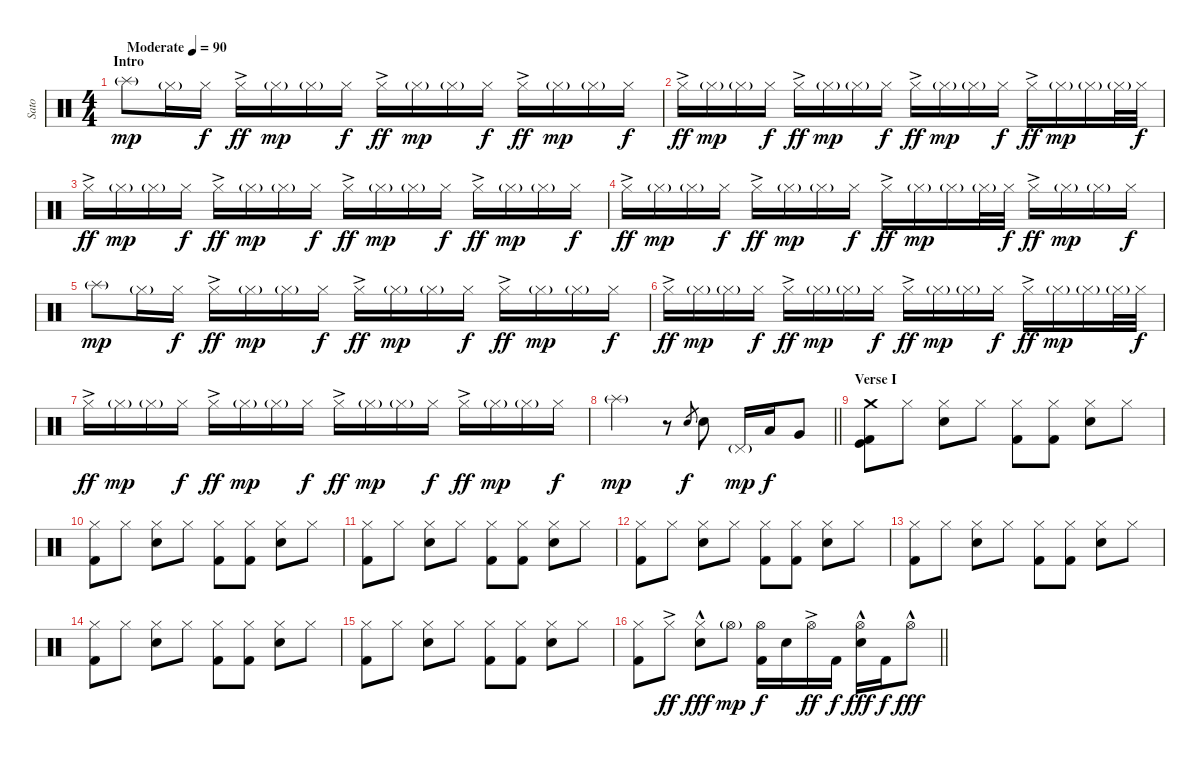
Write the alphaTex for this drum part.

\track ("Sato" "Sato") {instrument percussion}
\staff {score}
\articulation defaults
\ts (4 4)
\section ("" "Intro")
\tempo (90 "Moderate")
\clef neutral
\ks c "Splash (hit)"{g}.8{dy mp} "Hi-Hat (closed)"{g}.16 "Hi-Hat (closed)".16{dy f} "Hi-Hat (closed)"{ac}.16{dy ff} "Hi-Hat (closed)"{g}.16{dy mp} "Hi-Hat (closed)"{g}.16 "Hi-Hat (closed)".16{dy f} "Hi-Hat (closed)"{ac}.16{dy ff} "Hi-Hat (closed)"{g}.16{dy mp} "Hi-Hat (closed)"{g}.16 "Hi-Hat (closed)".16{dy f} "Hi-Hat (closed)"{ac}.16{dy ff} "Hi-Hat (closed)"{g}.16{dy mp} "Hi-Hat (closed)"{g}.16 "Hi-Hat (closed)".16{dy f}
|
"Hi-Hat (closed)"{ac}.16{dy ff} "Hi-Hat (closed)"{g}.16{dy mp} "Hi-Hat (closed)"{g}.16 "Hi-Hat (closed)".16{dy f} "Hi-Hat (closed)"{ac}.16{dy ff} "Hi-Hat (closed)"{g}.16{dy mp} "Hi-Hat (closed)"{g}.16 "Hi-Hat (closed)".16{dy f} "Hi-Hat (closed)"{ac}.16{dy ff} "Hi-Hat (closed)"{g}.16{dy mp} "Hi-Hat (closed)"{g}.16 "Hi-Hat (closed)".16{dy f} "Hi-Hat (closed)"{ac}.16{dy ff} "Hi-Hat (closed)"{g}.16{dy mp} "Hi-Hat (closed)"{g}.16 "Hi-Hat (closed)"{g}.32 "Hi-Hat (closed)".32{dy f} |
"Hi-Hat (closed)"{ac}.16{dy ff} "Hi-Hat (closed)"{g}.16{dy mp} "Hi-Hat (closed)"{g}.16 "Hi-Hat (closed)".16{dy f} "Hi-Hat (closed)"{ac}.16{dy ff} "Hi-Hat (closed)"{g}.16{dy mp} "Hi-Hat (closed)"{g}.16 "Hi-Hat (closed)".16{dy f} "Hi-Hat (closed)"{ac}.16{dy ff} "Hi-Hat (closed)"{g}.16{dy mp} "Hi-Hat (closed)"{g}.16 "Hi-Hat (closed)".16{dy f} "Hi-Hat (closed)"{ac}.16{dy ff} "Hi-Hat (closed)"{g}.16{dy mp} "Hi-Hat (closed)"{g}.16 "Hi-Hat (closed)".16{dy f} |
"Hi-Hat (closed)"{ac}.16{dy ff} "Hi-Hat (closed)"{g}.16{dy mp} "Hi-Hat (closed)"{g}.16 "Hi-Hat (closed)".16{dy f} "Hi-Hat (closed)"{ac}.16{dy ff} "Hi-Hat (closed)"{g}.16{dy mp} "Hi-Hat (closed)"{g}.16 "Hi-Hat (closed)".16{dy f} "Hi-Hat (closed)"{ac}.16{dy ff} "Hi-Hat (closed)"{g}.16{dy mp} "Hi-Hat (closed)"{g}.16 "Hi-Hat (closed)"{g}.32 "Hi-Hat (closed)".32{dy f} "Hi-Hat (closed)"{ac}.16{dy ff} "Hi-Hat (closed)"{g}.16{dy mp} "Hi-Hat (closed)"{g}.16 "Hi-Hat (closed)".16{dy f} |
"Splash (hit)"{g}.8{dy mp} "Hi-Hat (closed)"{g}.16 "Hi-Hat (closed)".16{dy f} "Hi-Hat (closed)"{ac}.16{dy ff} "Hi-Hat (closed)"{g}.16{dy mp} "Hi-Hat (closed)"{g}.16 "Hi-Hat (closed)".16{dy f} "Hi-Hat (closed)"{ac}.16{dy ff} "Hi-Hat (closed)"{g}.16{dy mp} "Hi-Hat (closed)"{g}.16 "Hi-Hat (closed)".16{dy f} "Hi-Hat (closed)"{ac}.16{dy ff} "Hi-Hat (closed)"{g}.16{dy mp} "Hi-Hat (closed)"{g}.16 "Hi-Hat (closed)".16{dy f} |
"Hi-Hat (closed)"{ac}.16{dy ff} "Hi-Hat (closed)"{g}.16{dy mp} "Hi-Hat (closed)"{g}.16 "Hi-Hat (closed)".16{dy f} "Hi-Hat (closed)"{ac}.16{dy ff} "Hi-Hat (closed)"{g}.16{dy mp} "Hi-Hat (closed)"{g}.16 "Hi-Hat (closed)".16{dy f} "Hi-Hat (closed)"{ac}.16{dy ff} "Hi-Hat (closed)"{g}.16{dy mp} "Hi-Hat (closed)"{g}.16 "Hi-Hat (closed)".16{dy f} "Hi-Hat (closed)"{ac}.16{dy ff} "Hi-Hat (closed)"{g}.16{dy mp} "Hi-Hat (closed)"{g}.16 "Hi-Hat (closed)"{g}.32 "Hi-Hat (closed)".32{dy f} |
"Hi-Hat (closed)"{ac}.16{dy ff} "Hi-Hat (closed)"{g}.16{dy mp} "Hi-Hat (closed)"{g}.16 "Hi-Hat (closed)".16{dy f} "Hi-Hat (closed)"{ac}.16{dy ff} "Hi-Hat (closed)"{g}.16{dy mp} "Hi-Hat (closed)"{g}.16 "Hi-Hat (closed)".16{dy f} "Hi-Hat (closed)"{ac}.16{dy ff} "Hi-Hat (closed)"{g}.16{dy mp} "Hi-Hat (closed)"{g}.16 "Hi-Hat (closed)".16{dy f} "Hi-Hat (closed)"{ac}.16{dy ff} "Hi-Hat (closed)"{g}.16{dy mp} "Hi-Hat (closed)"{g}.16 "Hi-Hat (closed)".16{dy f} |
\barLineRight lightlight "Splash (hit)"{g}.2{dy mp}
r.8 "Electric Snare (hit)".8{gr dy f} "Electric Snare (hit)".8 "Pedal Hi-Hat (hit)"{g}.16{dy mp} "Low Tom (hit)".16{dy f} "Very Low Tom (hit)".8 |
\section ("" "Verse I")
("Crash medium (hit)" "Kick (hit) 2" "Kick (hit)").8 "Hi-Hat (closed)".8 ("Hi-Hat (closed)" "Electric Snare (hit)").8 "Hi-Hat (closed)".8 ("Hi-Hat (closed)" "Kick (hit) 2").8 ("Hi-Hat (closed)" "Kick (hit) 2").8 ("Hi-Hat (closed)" "Electric Snare (hit)").8 "Hi-Hat (closed)".8 |
("Hi-Hat (closed)" "Kick (hit) 2").8 "Hi-Hat (closed)".8 ("Hi-Hat (closed)" "Electric Snare (hit)").8 "Hi-Hat (closed)".8 ("Hi-Hat (closed)" "Kick (hit) 2").8 ("Hi-Hat (closed)" "Kick (hit) 2").8 ("Hi-Hat (closed)" "Electric Snare (hit)").8 "Hi-Hat (closed)".8 |
("Hi-Hat (closed)" "Kick (hit) 2").8 "Hi-Hat (closed)".8 ("Hi-Hat (closed)" "Electric Snare (hit)").8 "Hi-Hat (closed)".8 ("Hi-Hat (closed)" "Kick (hit) 2").8 ("Hi-Hat (closed)" "Kick (hit) 2").8 ("Hi-Hat (closed)" "Electric Snare (hit)").8 "Hi-Hat (closed)".8 |
("Hi-Hat (closed)" "Kick (hit) 2").8 "Hi-Hat (closed)".8 ("Hi-Hat (closed)" "Electric Snare (hit)").8 "Hi-Hat (closed)".8 ("Hi-Hat (closed)" "Kick (hit) 2").8 ("Hi-Hat (closed)" "Kick (hit) 2").8 ("Hi-Hat (closed)" "Electric Snare (hit)").8 "Hi-Hat (closed)".8 |
("Hi-Hat (closed)" "Kick (hit) 2").8 "Hi-Hat (closed)".8 ("Hi-Hat (closed)" "Electric Snare (hit)").8 "Hi-Hat (closed)".8 ("Hi-Hat (closed)" "Kick (hit) 2").8 ("Hi-Hat (closed)" "Kick (hit) 2").8 ("Hi-Hat (closed)" "Electric Snare (hit)").8 "Hi-Hat (closed)".8 |
("Hi-Hat (closed)" "Kick (hit) 2").8 "Hi-Hat (closed)".8 ("Hi-Hat (closed)" "Electric Snare (hit)").8 "Hi-Hat (closed)".8 ("Hi-Hat (closed)" "Kick (hit) 2").8 ("Hi-Hat (closed)" "Kick (hit) 2").8 ("Hi-Hat (closed)" "Electric Snare (hit)").8 "Hi-Hat (closed)".8 |
("Hi-Hat (closed)" "Kick (hit) 2").8 "Hi-Hat (closed)".8 ("Hi-Hat (closed)" "Electric Snare (hit)").8 "Hi-Hat (closed)".8 ("Hi-Hat (closed)" "Kick (hit) 2").8 ("Hi-Hat (closed)" "Kick (hit) 2").8 ("Hi-Hat (closed)" "Electric Snare (hit)").8 "Hi-Hat (closed)".8 |
\barLineRight lightlight
("Hi-Hat (closed)" "Kick (hit) 2").8 "Hi-Hat (closed)"{ac}.8{dy ff} ("Hi-Hat (closed)"{hac} "Electric Snare (hit)").8{dy fff} "Hi-Hat (open)"{g}.8{dy mp} ("Hi-Hat (open)" "Kick (hit) 2").16{dy f} "Electric Snare (hit)".16 "Hi-Hat (open)"{ac}.16{dy ff} "Kick (hit) 2".16{dy f} ("Hi-Hat (open)"{hac} "Electric Snare (hit)").16{dy fff} "Kick (hit) 2".16{dy f} "Hi-Hat (open)"{hac}.8{dy fff}
